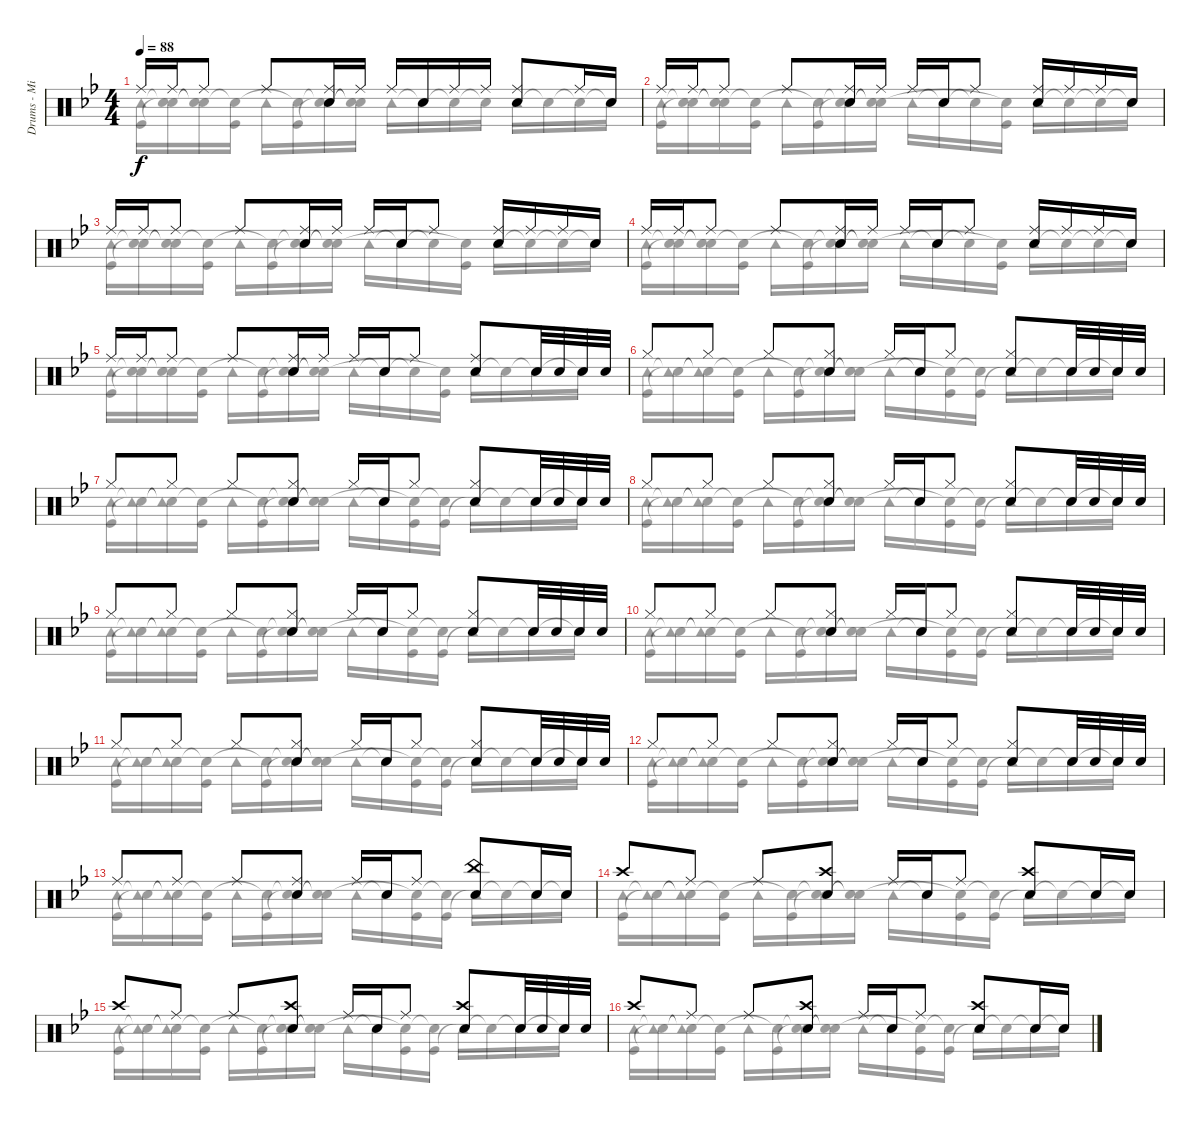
\track ("Drums - Mike Portnoy" "Drums - Mi") {instrument percussion}
\staff {score}
\articulation defaults
\voice
\ts (4 4)
\tempo 88
\clef neutral
\ks bb "Ride (middle)".16{dy f} "Ride (middle)".16 "Ride (middle)".8 "Ride (middle)".8
("Ride (middle)" "Snare (hit) 2").16 "Ride (middle)".16 "Ride (middle)".16 "Snare (hit) 2".16 "Ride (middle)".16 "Ride (middle)".16 ("Ride (middle)" "Snare (hit) 2").8 "Ride (middle)".16 "Snare (hit) 2".16 |
"Ride (middle)".16 "Ride (middle)".16 "Ride (middle)".8 "Ride (middle)".8 ("Ride (middle)" "Snare (hit) 2").16 "Ride (middle)".16 "Ride (middle)".16 "Snare (hit) 2".16 "Ride (middle)".8 ("Ride (middle)" "Snare (hit) 2").16 "Ride (middle)".16 "Ride (middle)".16 "Snare (hit) 2".16 |
"Ride (middle)".16 "Ride (middle)".16 "Ride (middle)".8 "Ride (middle)".8 ("Ride (middle)" "Snare (hit) 2").16 "Ride (middle)".16 "Ride (middle)".16 "Snare (hit) 2".16 "Ride (middle)".8 ("Ride (middle)" "Snare (hit) 2").16 "Ride (middle)".16 "Ride (middle)".16 "Snare (hit) 2".16 |
"Ride (middle)".16 "Ride (middle)".16 "Ride (middle)".8 "Ride (middle)".8 ("Ride (middle)" "Snare (hit) 2").16 "Ride (middle)".16 "Ride (middle)".16 "Snare (hit) 2".16 "Ride (middle)".8 ("Ride (middle)" "Snare (hit) 2").16 "Ride (middle)".16 "Ride (middle)".16 "Snare (hit) 2".16 |
"Ride (middle)".16 "Ride (middle)".16 "Ride (middle)".8 "Ride (middle)".8 ("Ride (middle)" "Snare (hit) 2").16 "Ride (middle)".16 "Ride (middle)".16 "Snare (hit) 2".16 "Ride (middle)".8 ("Ride (middle)" "Snare (hit) 2").8 "Snare (hit) 2".32 "Snare (hit) 2".32 "Snare (hit) 2".32 "Snare (hit) 2".32 |
"Hi-Hat (closed)".8 "Hi-Hat (closed)".8 "Hi-Hat (closed)".8 ("Hi-Hat (closed)" "Snare (hit) 2").8 "Hi-Hat (closed)".16 "Snare (hit) 2".16 "Hi-Hat (closed)".8 ("Hi-Hat (closed)" "Snare (hit) 2").8 "Snare (hit) 2".32 "Snare (hit) 2".32 "Snare (hit) 2".32 "Snare (hit) 2".32 |
"Hi-Hat (closed)".8 "Hi-Hat (closed)".8 "Hi-Hat (closed)".8 ("Hi-Hat (closed)" "Snare (hit) 2").8 "Hi-Hat (closed)".16 "Snare (hit) 2".16 "Hi-Hat (closed)".8 ("Hi-Hat (closed)" "Snare (hit) 2").8 "Snare (hit) 2".32 "Snare (hit) 2".32 "Snare (hit) 2".32 "Snare (hit) 2".32 |
"Hi-Hat (closed)".8 "Hi-Hat (closed)".8 "Hi-Hat (closed)".8 ("Hi-Hat (closed)" "Snare (hit) 2").8 "Hi-Hat (closed)".16 "Snare (hit) 2".16 "Hi-Hat (closed)".8 ("Hi-Hat (closed)" "Snare (hit) 2").8 "Snare (hit) 2".32 "Snare (hit) 2".32 "Snare (hit) 2".32 "Snare (hit) 2".32 |
"Hi-Hat (closed)".8 "Hi-Hat (closed)".8 "Hi-Hat (closed)".8 ("Hi-Hat (closed)" "Snare (hit) 2").8 "Hi-Hat (closed)".16 "Snare (hit) 2".16 "Hi-Hat (closed)".8 ("Hi-Hat (closed)" "Snare (hit) 2").8 "Snare (hit) 2".32 "Snare (hit) 2".32 "Snare (hit) 2".32 "Snare (hit) 2".32 |
"Hi-Hat (closed)".8 "Hi-Hat (closed)".8 "Hi-Hat (closed)".8 ("Hi-Hat (closed)" "Snare (hit) 2").8 "Hi-Hat (closed)".16 "Snare (hit) 2".16 "Hi-Hat (closed)".8 ("Hi-Hat (closed)" "Snare (hit) 2").8 "Snare (hit) 2".32 "Snare (hit) 2".32 "Snare (hit) 2".32 "Snare (hit) 2".32 |
"Hi-Hat (closed)".8 "Hi-Hat (closed)".8 "Hi-Hat (closed)".8 ("Hi-Hat (closed)" "Snare (hit) 2").8 "Hi-Hat (closed)".16 "Snare (hit) 2".16 "Hi-Hat (closed)".8 ("Hi-Hat (closed)" "Snare (hit) 2").8 "Snare (hit) 2".32 "Snare (hit) 2".32 "Snare (hit) 2".32 "Snare (hit) 2".32 |
"Hi-Hat (closed)".8 "Hi-Hat (closed)".8 "Hi-Hat (closed)".8 ("Hi-Hat (closed)" "Snare (hit) 2").8 "Hi-Hat (closed)".16 "Snare (hit) 2".16 "Hi-Hat (closed)".8 ("Hi-Hat (closed)" "Snare (hit) 2").8 "Snare (hit) 2".32 "Snare (hit) 2".32 "Snare (hit) 2".32 "Snare (hit) 2".32 |
"Ride (middle)".8 "Ride (middle)".8 "Ride (middle)".8 ("Ride (middle)" "Snare (hit) 2").8 "Ride (middle)".16 "Snare (hit) 2".16 "Ride (middle)".8 ("China (hit)" "Snare (hit) 2").8 "Snare (hit) 2".16 "Snare (hit) 2".16 |
"Crash high (hit)".8{volume 13} "Ride (middle)".8 "Ride (middle)".8 ("Crash high (hit)" "Snare (hit) 2").8 "Ride (middle)".16 "Snare (hit) 2".16 "Ride (middle)".8 ("Crash high (hit)" "Snare (hit) 2").8 "Snare (hit) 2".16 "Snare (hit) 2".16 |
"Crash high (hit)".8 "Ride (middle)".8 "Ride (middle)".8 ("Crash high (hit)" "Snare (hit) 2").8 "Ride (middle)".16 "Snare (hit) 2".16 "Ride (middle)".8 ("Crash high (hit)" "Snare (hit) 2").8 "Snare (hit) 2".32 "Snare (hit) 2".32 "Snare (hit) 2".32 "Snare (hit) 2".32 |
"Crash high (hit)".8 "Ride (middle)".8 "Ride (middle)".8 ("Crash high (hit)" "Snare (hit) 2").8 "Ride (middle)".16 "Snare (hit) 2".16 "Ride (middle)".8 ("Crash high (hit)" "Snare (hit) 2").8 "Snare (hit) 2".16 "Snare (hit) 2".16
\voice
\clef neutral
\ottava regular
\simile none
\ks bb
("Kick (hit)" "Tambourine (hit)").16{dy f} ("Snare (hit)"{t} "Snare (hit)"{t}).16 ("Snare (hit)"{t} "Snare (hit)"{t}).16 ("Kick (hit)" "Snare (hit)"{t}).16 "Tambourine (hit)".16 ("Kick (hit)" "Snare (hit)"{t}).16 ("Snare (hit)"{t} "Snare (hit)"{t}).16 ("Snare (hit)"{t} "Snare (hit)"{t}).16 "Tambourine (hit)".16 "Snare (hit)"{t}.16 "Snare (hit)"{t}.16 "Snare (hit)"{t}.16 "Tambourine (hit)".16 "Snare (hit)"{t}.16 "Snare (hit)"{t}.16 "Snare (hit)"{t}.16 |
("Kick (hit)" "Tambourine (hit)").16 ("Snare (hit)"{t} "Snare (hit)"{t}).16 ("Snare (hit)"{t} "Snare (hit)"{t}).16 ("Kick (hit)" "Snare (hit)"{t}).16 "Tambourine (hit)".16 ("Kick (hit)" "Snare (hit)"{t}).16 ("Snare (hit)"{t} "Snare (hit)"{t}).16 ("Snare (hit)"{t} "Snare (hit)"{t}).16 "Tambourine (hit)".16 "Snare (hit)"{t}.16 "Snare (hit)"{t}.16 ("Kick (hit)" "Snare (hit)"{t}).16 "Tambourine (hit)".16 "Snare (hit)"{t}.16 "Snare (hit)"{t}.16 "Snare (hit)"{t}.16 |
("Kick (hit)" "Tambourine (hit)").16 ("Snare (hit)"{t} "Snare (hit)"{t}).16 ("Snare (hit)"{t} "Snare (hit)"{t}).16 ("Kick (hit)" "Snare (hit)"{t}).16 "Tambourine (hit)".16 ("Kick (hit)" "Snare (hit)"{t}).16 ("Snare (hit)"{t} "Snare (hit)"{t}).16 ("Snare (hit)"{t} "Snare (hit)"{t}).16 "Tambourine (hit)".16 "Snare (hit)"{t}.16 "Snare (hit)"{t}.16 ("Kick (hit)" "Snare (hit)"{t}).16 "Tambourine (hit)".16 "Snare (hit)"{t}.16 "Snare (hit)"{t}.16 "Snare (hit)"{t}.16 |
("Kick (hit)" "Tambourine (hit)").16 ("Snare (hit)"{t} "Snare (hit)"{t}).16 ("Snare (hit)"{t} "Snare (hit)"{t}).16 ("Kick (hit)" "Snare (hit)"{t}).16 "Tambourine (hit)".16 ("Kick (hit)" "Snare (hit)"{t}).16 ("Snare (hit)"{t} "Snare (hit)"{t}).16 ("Snare (hit)"{t} "Snare (hit)"{t}).16 "Tambourine (hit)".16 "Snare (hit)"{t}.16 "Snare (hit)"{t}.16 ("Kick (hit)" "Snare (hit)"{t}).16 "Tambourine (hit)".16 "Snare (hit)"{t}.16 "Snare (hit)"{t}.16 "Snare (hit)"{t}.16 |
("Kick (hit)" "Tambourine (hit)").16 ("Snare (hit)"{t} "Snare (hit)"{t}).16 ("Snare (hit)"{t} "Snare (hit)"{t}).16 ("Kick (hit)" "Snare (hit)"{t}).16 "Tambourine (hit)".16 ("Kick (hit)" "Snare (hit)"{t}).16 ("Snare (hit)"{t} "Snare (hit)"{t}).16 ("Snare (hit)"{t} "Snare (hit)"{t}).16 "Tambourine (hit)".16 "Snare (hit)"{t}.16 "Snare (hit)"{t}.16 ("Kick (hit)" "Snare (hit)"{t}).16 "Tambourine (hit)".16 "Snare (hit)"{t}.16 "Snare (hit)"{t}.16 "Snare (hit)"{t}.16 |
("Kick (hit)" "Tambourine (hit)").16 ("Snare (hit)"{t} "Tambourine (hit)"{t}).16 ("Snare (hit)"{t} "Tambourine (hit)"{t}).16 ("Kick (hit)" "Snare (hit)"{t}).16 "Tambourine (hit)".16 ("Kick (hit)" "Snare (hit)"{t}).16 ("Snare (hit)"{t} "Snare (hit)"{t}).16 ("Snare (hit)"{t} "Snare (hit)"{t}).16 "Tambourine (hit)".16 "Snare (hit)"{t}.16 ("Kick (hit)" "Snare (hit)"{t}).16 ("Kick (hit)" "Snare (hit)"{t}).16 "Tambourine (hit)"{t}.16 "Snare (hit)"{t}.16 "Snare (hit)"{t}.16 "Snare (hit)"{t}.16 |
("Kick (hit)" "Tambourine (hit)").16 ("Snare (hit)"{t} "Tambourine (hit)"{t}).16 ("Snare (hit)"{t} "Tambourine (hit)"{t}).16 ("Kick (hit)" "Snare (hit)"{t}).16 "Tambourine (hit)".16 ("Kick (hit)" "Snare (hit)"{t}).16 ("Snare (hit)"{t} "Snare (hit)"{t}).16 ("Snare (hit)"{t} "Snare (hit)"{t}).16 "Tambourine (hit)".16 "Snare (hit)"{t}.16 ("Kick (hit)" "Snare (hit)"{t}).16 ("Kick (hit)" "Snare (hit)"{t}).16 "Tambourine (hit)"{t}.16 "Snare (hit)"{t}.16 "Snare (hit)"{t}.16 "Snare (hit)"{t}.16 |
("Kick (hit)" "Tambourine (hit)").16 ("Snare (hit)"{t} "Tambourine (hit)"{t}).16 ("Snare (hit)"{t} "Tambourine (hit)"{t}).16 ("Kick (hit)" "Snare (hit)"{t}).16 "Tambourine (hit)".16 ("Kick (hit)" "Snare (hit)"{t}).16 ("Snare (hit)"{t} "Snare (hit)"{t}).16 ("Snare (hit)"{t} "Snare (hit)"{t}).16 "Tambourine (hit)".16 "Snare (hit)"{t}.16 ("Kick (hit)" "Snare (hit)"{t}).16 ("Kick (hit)" "Snare (hit)"{t}).16 "Tambourine (hit)"{t}.16 "Snare (hit)"{t}.16 "Snare (hit)"{t}.16 "Snare (hit)"{t}.16 |
("Kick (hit)" "Tambourine (hit)").16 ("Snare (hit)"{t} "Tambourine (hit)"{t}).16 ("Snare (hit)"{t} "Tambourine (hit)"{t}).16 ("Kick (hit)" "Snare (hit)"{t}).16 "Tambourine (hit)".16 ("Kick (hit)" "Snare (hit)"{t}).16 ("Snare (hit)"{t} "Snare (hit)"{t}).16 ("Snare (hit)"{t} "Snare (hit)"{t}).16 "Tambourine (hit)".16 "Snare (hit)"{t}.16 ("Kick (hit)" "Snare (hit)"{t}).16 ("Kick (hit)" "Snare (hit)"{t}).16 "Tambourine (hit)"{t}.16 "Snare (hit)"{t}.16 "Snare (hit)"{t}.16 "Snare (hit)"{t}.16 |
("Kick (hit)" "Tambourine (hit)").16 ("Snare (hit)"{t} "Tambourine (hit)"{t}).16 ("Snare (hit)"{t} "Tambourine (hit)"{t}).16 ("Kick (hit)" "Snare (hit)"{t}).16 "Tambourine (hit)".16 ("Kick (hit)" "Snare (hit)"{t}).16 ("Snare (hit)"{t} "Snare (hit)"{t}).16 ("Snare (hit)"{t} "Snare (hit)"{t}).16 "Tambourine (hit)".16 "Snare (hit)"{t}.16 ("Kick (hit)" "Snare (hit)"{t}).16 ("Kick (hit)" "Snare (hit)"{t}).16 "Tambourine (hit)"{t}.16 "Snare (hit)"{t}.16 "Snare (hit)"{t}.16 "Snare (hit)"{t}.16 |
("Kick (hit)" "Tambourine (hit)").16 ("Snare (hit)"{t} "Tambourine (hit)"{t}).16 ("Snare (hit)"{t} "Tambourine (hit)"{t}).16 ("Kick (hit)" "Snare (hit)"{t}).16 "Tambourine (hit)".16 ("Kick (hit)" "Snare (hit)"{t}).16 ("Snare (hit)"{t} "Snare (hit)"{t}).16 ("Snare (hit)"{t} "Snare (hit)"{t}).16 "Tambourine (hit)".16 "Snare (hit)"{t}.16 ("Kick (hit)" "Snare (hit)"{t}).16 ("Kick (hit)" "Snare (hit)"{t}).16 "Tambourine (hit)"{t}.16 "Snare (hit)"{t}.16 "Snare (hit)"{t}.16 "Snare (hit)"{t}.16 |
("Kick (hit)" "Tambourine (hit)").16 ("Snare (hit)"{t} "Tambourine (hit)"{t}).16 ("Snare (hit)"{t} "Tambourine (hit)"{t}).16 ("Kick (hit)" "Snare (hit)"{t}).16 "Tambourine (hit)".16 ("Kick (hit)" "Snare (hit)"{t}).16 ("Snare (hit)"{t} "Snare (hit)"{t}).16 ("Snare (hit)"{t} "Snare (hit)"{t}).16 "Tambourine (hit)".16 "Snare (hit)"{t}.16 ("Kick (hit)" "Snare (hit)"{t}).16 ("Kick (hit)" "Snare (hit)"{t}).16 "Tambourine (hit)"{t}.16 "Snare (hit)"{t}.16 "Snare (hit)"{t}.16 "Snare (hit)"{t}.16 |
("Kick (hit)" "Tambourine (hit)").16 ("Snare (hit)"{t} "Tambourine (hit)"{t}).16 ("Snare (hit)"{t} "Tambourine (hit)"{t}).16 ("Kick (hit)" "Snare (hit)"{t}).16 "Tambourine (hit)".16 ("Kick (hit)" "Snare (hit)"{t}).16 ("Snare (hit)"{t} "Snare (hit)"{t}).16 ("Snare (hit)"{t} "Snare (hit)"{t}).16 "Tambourine (hit)".16 "Snare (hit)"{t}.16 ("Kick (hit)" "Snare (hit)"{t}).16 ("Kick (hit)" "Snare (hit)"{t}).16 "Tambourine (hit)"{t}.16 "Snare (hit)"{t}.16 "Snare (hit)"{t}.16 "Snare (hit)"{t}.16 |
("Kick (hit)" "Tambourine (hit)").16 ("Snare (hit)"{t} "Tambourine (hit)"{t}).16 ("Snare (hit)"{t} "Tambourine (hit)"{t}).16 ("Kick (hit)" "Snare (hit)"{t}).16 "Tambourine (hit)".16 ("Kick (hit)" "Snare (hit)"{t}).16 ("Snare (hit)"{t} "Snare (hit)"{t}).16 ("Snare (hit)"{t} "Snare (hit)"{t}).16 "Tambourine (hit)".16 "Snare (hit)"{t}.16 ("Kick (hit)" "Snare (hit)"{t}).16 ("Kick (hit)" "Snare (hit)"{t}).16 "Tambourine (hit)"{t}.16 "Snare (hit)"{t}.16 "Snare (hit)"{t}.16 "Snare (hit)"{t}.16 |
("Kick (hit)" "Tambourine (hit)").16 ("Snare (hit)"{t} "Tambourine (hit)"{t}).16 ("Snare (hit)"{t} "Tambourine (hit)"{t}).16 ("Kick (hit)" "Snare (hit)"{t}).16 "Tambourine (hit)".16 ("Kick (hit)" "Snare (hit)"{t}).16 ("Snare (hit)"{t} "Snare (hit)"{t}).16 ("Snare (hit)"{t} "Snare (hit)"{t}).16 "Tambourine (hit)".16 "Snare (hit)"{t}.16 ("Kick (hit)" "Snare (hit)"{t}).16 ("Kick (hit)" "Snare (hit)"{t}).16 "Tambourine (hit)"{t}.16 "Snare (hit)"{t}.16 "Snare (hit)"{t}.16 "Snare (hit)"{t}.16 |
("Kick (hit)" "Tambourine (hit)").16 ("Snare (hit)"{t} "Tambourine (hit)"{t}).16 ("Snare (hit)"{t} "Tambourine (hit)"{t}).16 ("Kick (hit)" "Snare (hit)"{t}).16 "Tambourine (hit)".16 ("Kick (hit)" "Snare (hit)"{t}).16 ("Snare (hit)"{t} "Snare (hit)"{t}).16 ("Snare (hit)"{t} "Snare (hit)"{t}).16 "Tambourine (hit)".16 "Snare (hit)"{t}.16 ("Kick (hit)" "Snare (hit)"{t}).16 ("Kick (hit)" "Snare (hit)"{t}).16 "Tambourine (hit)"{t}.16 "Snare (hit)"{t}.16 "Snare (hit)"{t}.16 "Snare (hit)"{t}.16
